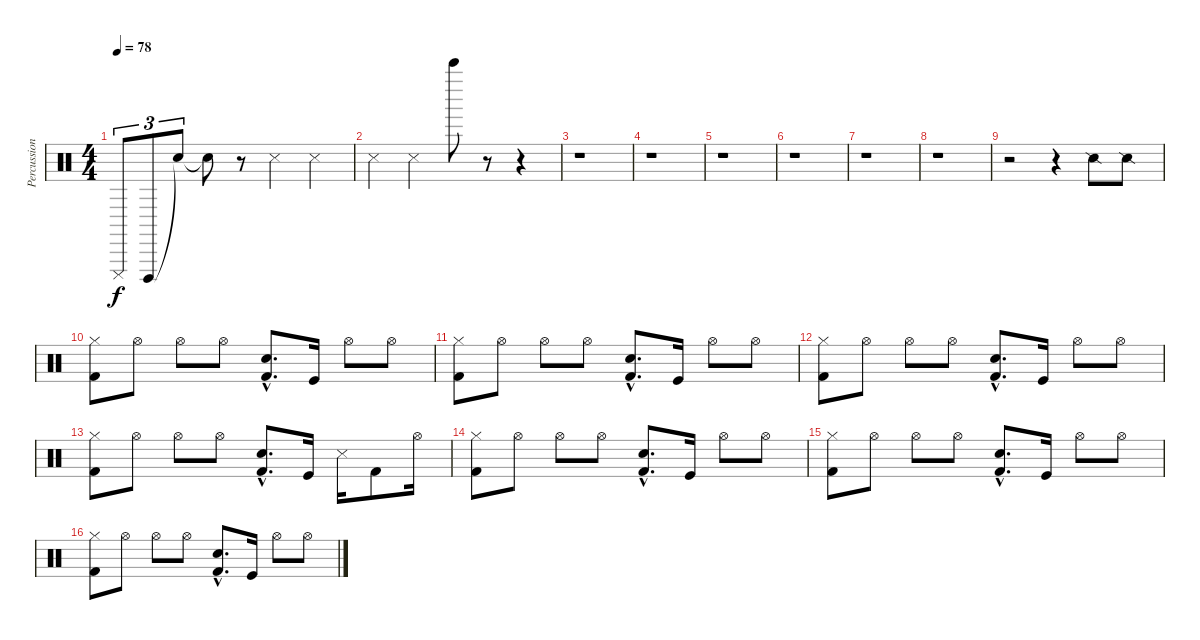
\track ("Percussion" "Percussion") {instrument percussion}
\staff {score}
\articulation defaults
\ts (4 4)
\tempo 78
\clef neutral
\ks c "Cuica (mute)".8{tu (3 2) dy f} "Cuica (open)".8{tu (3 2)} "Snare (hit)"{t}.8{tu (3 2)} "Snare (hit)"{t}.8
r.8 "Snare (side stick) 3".4 "Snare (side stick) 3".4 |
"Snare (side stick) 3".4 "Snare (side stick) 3".4 "Bell Tree (hit)".8 r.8 r.4 |
r.1 |
r.1 |
r.1 |
r.1 |
r.1 |
r.1 |
r.2 r.4 "Snare (side stick) 2".8 "Snare (side stick) 2".8 |
("Kick (hit) 2" "Hi-Hat (closed)").8 "Hi-Hat (open)".8 "Hi-Hat (open)".8 "Hi-Hat (open)".8 ("Kick (hit) 2"{hac} "Electric Snare (hit)"{hac}).8{d} "Kick (hit)".16 "Hi-Hat (open)".8 "Hi-Hat (open)".8 |
("Kick (hit) 2" "Hi-Hat (closed)").8 "Hi-Hat (open)".8 "Hi-Hat (open)".8 "Hi-Hat (open)".8 ("Kick (hit) 2"{hac} "Electric Snare (hit)"{hac}).8{d} "Kick (hit)".16 "Hi-Hat (open)".8 "Hi-Hat (open)".8 |
("Kick (hit) 2" "Hi-Hat (closed)").8 "Hi-Hat (open)".8 "Hi-Hat (open)".8 "Hi-Hat (open)".8 ("Kick (hit) 2"{hac} "Electric Snare (hit)"{hac}).8{d} "Kick (hit)".16 "Hi-Hat (open)".8 "Hi-Hat (open)".8 |
("Kick (hit) 2" "Hi-Hat (closed)").8 "Hi-Hat (open)".8 "Hi-Hat (open)".8 "Hi-Hat (open)".8 ("Kick (hit) 2"{hac} "Electric Snare (hit)"{hac}).8{d} "Kick (hit)".16 "Snare (side stick) 3".16 "Kick (hit) 2".8 "Hi-Hat (open)".16 |
("Kick (hit) 2" "Hi-Hat (closed)").8 "Hi-Hat (open)".8 "Hi-Hat (open)".8 "Hi-Hat (open)".8 ("Kick (hit) 2"{hac} "Electric Snare (hit)"{hac}).8{d} "Kick (hit)".16 "Hi-Hat (open)".8 "Hi-Hat (open)".8 |
("Kick (hit) 2" "Hi-Hat (closed)").8 "Hi-Hat (open)".8 "Hi-Hat (open)".8 "Hi-Hat (open)".8 ("Kick (hit) 2"{hac} "Electric Snare (hit)"{hac}).8{d} "Kick (hit)".16 "Hi-Hat (open)".8 "Hi-Hat (open)".8 |
("Kick (hit) 2" "Hi-Hat (closed)").8 "Hi-Hat (open)".8 "Hi-Hat (open)".8 "Hi-Hat (open)".8 ("Kick (hit) 2"{hac} "Electric Snare (hit)"{hac}).8{d} "Kick (hit)".16 "Hi-Hat (open)".8 "Hi-Hat (open)".8
